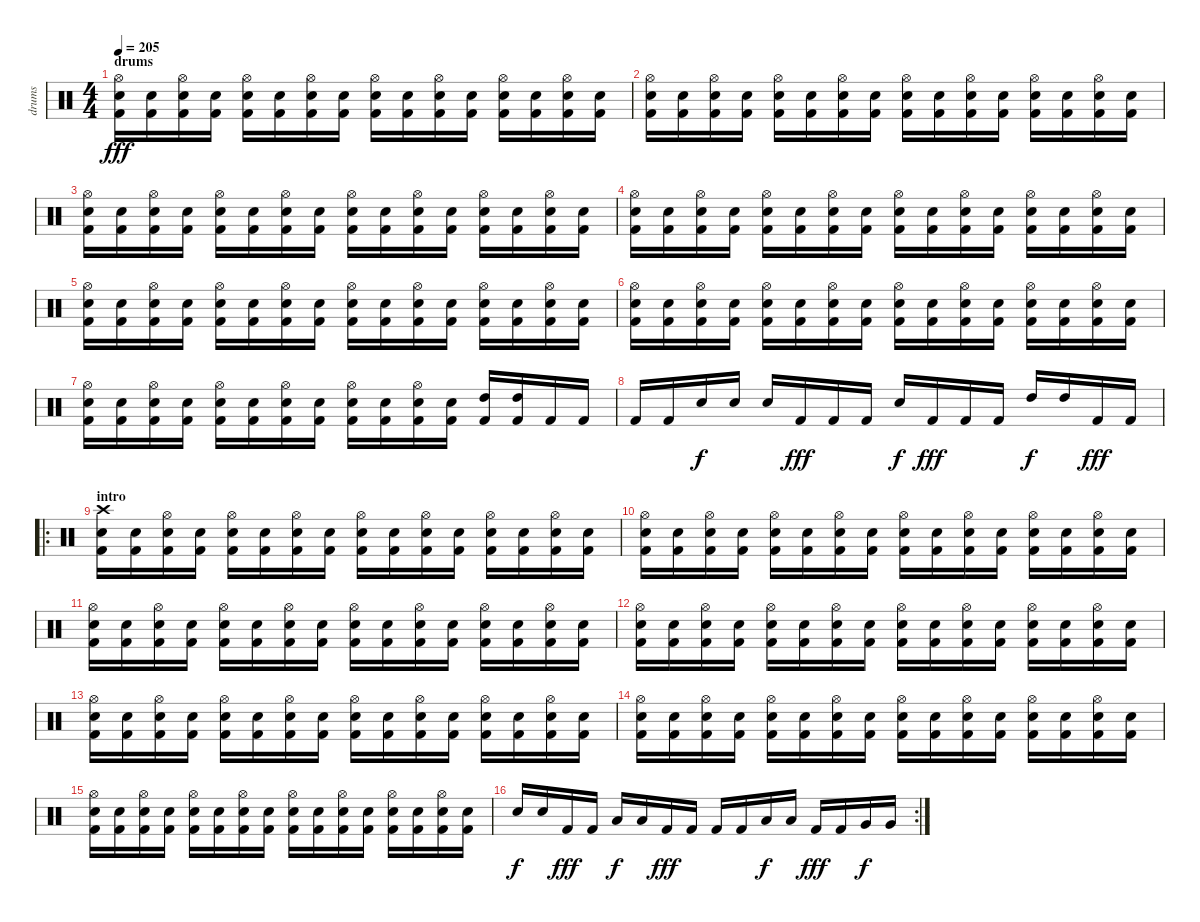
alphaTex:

\track ("drums" "drums") {instrument percussion}
\staff {score}
\articulation defaults
\ts (4 4)
\section ("" "drums")
\tempo 205
\clef neutral
\ks c
("Hi-Hat (open)" "Electric Snare (hit)" "Kick (hit) 2").16{dy fff} ("Electric Snare (hit)" "Kick (hit) 2").16 ("Hi-Hat (open)" "Electric Snare (hit)" "Kick (hit) 2").16 ("Electric Snare (hit)" "Kick (hit) 2").16 ("Hi-Hat (open)" "Electric Snare (hit)" "Kick (hit) 2").16 ("Electric Snare (hit)" "Kick (hit) 2").16 ("Hi-Hat (open)" "Electric Snare (hit)" "Kick (hit) 2").16 ("Electric Snare (hit)" "Kick (hit) 2").16 ("Hi-Hat (open)" "Electric Snare (hit)" "Kick (hit) 2").16 ("Electric Snare (hit)" "Kick (hit) 2").16 ("Hi-Hat (open)" "Electric Snare (hit)" "Kick (hit) 2").16 ("Electric Snare (hit)" "Kick (hit) 2").16 ("Hi-Hat (open)" "Electric Snare (hit)" "Kick (hit) 2").16 ("Electric Snare (hit)" "Kick (hit) 2").16 ("Hi-Hat (open)" "Electric Snare (hit)" "Kick (hit) 2").16 ("Electric Snare (hit)" "Kick (hit) 2").16 |
("Hi-Hat (open)" "Electric Snare (hit)" "Kick (hit) 2").16 ("Electric Snare (hit)" "Kick (hit) 2").16 ("Hi-Hat (open)" "Electric Snare (hit)" "Kick (hit) 2").16 ("Electric Snare (hit)" "Kick (hit) 2").16 ("Hi-Hat (open)" "Electric Snare (hit)" "Kick (hit) 2").16 ("Electric Snare (hit)" "Kick (hit) 2").16 ("Hi-Hat (open)" "Electric Snare (hit)" "Kick (hit) 2").16 ("Electric Snare (hit)" "Kick (hit) 2").16 ("Hi-Hat (open)" "Electric Snare (hit)" "Kick (hit) 2").16 ("Electric Snare (hit)" "Kick (hit) 2").16 ("Hi-Hat (open)" "Electric Snare (hit)" "Kick (hit) 2").16 ("Electric Snare (hit)" "Kick (hit) 2").16 ("Hi-Hat (open)" "Electric Snare (hit)" "Kick (hit) 2").16 ("Electric Snare (hit)" "Kick (hit) 2").16 ("Hi-Hat (open)" "Electric Snare (hit)" "Kick (hit) 2").16 ("Electric Snare (hit)" "Kick (hit) 2").16 |
("Hi-Hat (open)" "Electric Snare (hit)" "Kick (hit) 2").16 ("Electric Snare (hit)" "Kick (hit) 2").16 ("Hi-Hat (open)" "Electric Snare (hit)" "Kick (hit) 2").16 ("Electric Snare (hit)" "Kick (hit) 2").16 ("Hi-Hat (open)" "Electric Snare (hit)" "Kick (hit) 2").16 ("Electric Snare (hit)" "Kick (hit) 2").16 ("Hi-Hat (open)" "Electric Snare (hit)" "Kick (hit) 2").16 ("Electric Snare (hit)" "Kick (hit) 2").16 ("Hi-Hat (open)" "Electric Snare (hit)" "Kick (hit) 2").16 ("Electric Snare (hit)" "Kick (hit) 2").16 ("Hi-Hat (open)" "Electric Snare (hit)" "Kick (hit) 2").16 ("Electric Snare (hit)" "Kick (hit) 2").16 ("Hi-Hat (open)" "Electric Snare (hit)" "Kick (hit) 2").16 ("Electric Snare (hit)" "Kick (hit) 2").16 ("Hi-Hat (open)" "Electric Snare (hit)" "Kick (hit) 2").16 ("Electric Snare (hit)" "Kick (hit) 2").16 |
("Hi-Hat (open)" "Electric Snare (hit)" "Kick (hit) 2").16 ("Electric Snare (hit)" "Kick (hit) 2").16 ("Hi-Hat (open)" "Electric Snare (hit)" "Kick (hit) 2").16 ("Electric Snare (hit)" "Kick (hit) 2").16 ("Hi-Hat (open)" "Electric Snare (hit)" "Kick (hit) 2").16 ("Electric Snare (hit)" "Kick (hit) 2").16 ("Hi-Hat (open)" "Electric Snare (hit)" "Kick (hit) 2").16 ("Electric Snare (hit)" "Kick (hit) 2").16 ("Hi-Hat (open)" "Electric Snare (hit)" "Kick (hit) 2").16 ("Electric Snare (hit)" "Kick (hit) 2").16 ("Hi-Hat (open)" "Electric Snare (hit)" "Kick (hit) 2").16 ("Electric Snare (hit)" "Kick (hit) 2").16 ("Hi-Hat (open)" "Electric Snare (hit)" "Kick (hit) 2").16 ("Electric Snare (hit)" "Kick (hit) 2").16 ("Hi-Hat (open)" "Electric Snare (hit)" "Kick (hit) 2").16 ("Electric Snare (hit)" "Kick (hit) 2").16 |
("Hi-Hat (open)" "Electric Snare (hit)" "Kick (hit) 2").16 ("Electric Snare (hit)" "Kick (hit) 2").16 ("Hi-Hat (open)" "Electric Snare (hit)" "Kick (hit) 2").16 ("Electric Snare (hit)" "Kick (hit) 2").16 ("Hi-Hat (open)" "Electric Snare (hit)" "Kick (hit) 2").16 ("Electric Snare (hit)" "Kick (hit) 2").16 ("Hi-Hat (open)" "Electric Snare (hit)" "Kick (hit) 2").16 ("Electric Snare (hit)" "Kick (hit) 2").16 ("Hi-Hat (open)" "Electric Snare (hit)" "Kick (hit) 2").16 ("Electric Snare (hit)" "Kick (hit) 2").16 ("Hi-Hat (open)" "Electric Snare (hit)" "Kick (hit) 2").16 ("Electric Snare (hit)" "Kick (hit) 2").16 ("Hi-Hat (open)" "Electric Snare (hit)" "Kick (hit) 2").16 ("Electric Snare (hit)" "Kick (hit) 2").16 ("Hi-Hat (open)" "Electric Snare (hit)" "Kick (hit) 2").16 ("Electric Snare (hit)" "Kick (hit) 2").16 |
("Hi-Hat (open)" "Electric Snare (hit)" "Kick (hit) 2").16 ("Electric Snare (hit)" "Kick (hit) 2").16 ("Hi-Hat (open)" "Electric Snare (hit)" "Kick (hit) 2").16 ("Electric Snare (hit)" "Kick (hit) 2").16 ("Hi-Hat (open)" "Electric Snare (hit)" "Kick (hit) 2").16 ("Electric Snare (hit)" "Kick (hit) 2").16 ("Hi-Hat (open)" "Electric Snare (hit)" "Kick (hit) 2").16 ("Electric Snare (hit)" "Kick (hit) 2").16 ("Hi-Hat (open)" "Electric Snare (hit)" "Kick (hit) 2").16 ("Electric Snare (hit)" "Kick (hit) 2").16 ("Hi-Hat (open)" "Electric Snare (hit)" "Kick (hit) 2").16 ("Electric Snare (hit)" "Kick (hit) 2").16 ("Hi-Hat (open)" "Electric Snare (hit)" "Kick (hit) 2").16 ("Electric Snare (hit)" "Kick (hit) 2").16 ("Hi-Hat (open)" "Electric Snare (hit)" "Kick (hit) 2").16 ("Electric Snare (hit)" "Kick (hit) 2").16 |
("Hi-Hat (open)" "Electric Snare (hit)" "Kick (hit) 2").16 ("Electric Snare (hit)" "Kick (hit) 2").16 ("Hi-Hat (open)" "Electric Snare (hit)" "Kick (hit) 2").16 ("Electric Snare (hit)" "Kick (hit) 2").16 ("Hi-Hat (open)" "Electric Snare (hit)" "Kick (hit) 2").16 ("Electric Snare (hit)" "Kick (hit) 2").16 ("Hi-Hat (open)" "Electric Snare (hit)" "Kick (hit) 2").16 ("Electric Snare (hit)" "Kick (hit) 2").16 ("Hi-Hat (open)" "Electric Snare (hit)" "Kick (hit) 2").16 ("Electric Snare (hit)" "Kick (hit) 2").16 ("Hi-Hat (open)" "Electric Snare (hit)" "Kick (hit) 2").16 ("Electric Snare (hit)" "Kick (hit) 2").16 ("High Tom (hit)" "Kick (hit) 2").16 ("High Tom (hit)" "Kick (hit) 2").16 "Kick (hit) 2".16 "Kick (hit) 2".16 |
"Kick (hit) 2".16 "Kick (hit) 2".16 "Electric Snare (hit)".16{dy f} "Electric Snare (hit)".16 "Electric Snare (hit)".16 "Kick (hit) 2".16{dy fff} "Kick (hit) 2".16 "Kick (hit) 2".16 "Electric Snare (hit)".16{dy f} "Kick (hit) 2".16{dy fff} "Kick (hit) 2".16 "Kick (hit) 2".16 "High Tom (hit)".16{dy f} "High Tom (hit)".16 "Kick (hit) 2".16{dy fff} "Kick (hit) 2".16 |
\ro
\section ("" "intro")
("Crash high (hit)" "Electric Snare (hit)" "Kick (hit) 2").16 ("Electric Snare (hit)" "Kick (hit) 2").16 ("Hi-Hat (open)" "Electric Snare (hit)" "Kick (hit) 2").16 ("Electric Snare (hit)" "Kick (hit) 2").16 ("Hi-Hat (open)" "Electric Snare (hit)" "Kick (hit) 2").16 ("Electric Snare (hit)" "Kick (hit) 2").16 ("Hi-Hat (open)" "Electric Snare (hit)" "Kick (hit) 2").16 ("Electric Snare (hit)" "Kick (hit) 2").16 ("Hi-Hat (open)" "Electric Snare (hit)" "Kick (hit) 2").16 ("Electric Snare (hit)" "Kick (hit) 2").16 ("Hi-Hat (open)" "Electric Snare (hit)" "Kick (hit) 2").16 ("Electric Snare (hit)" "Kick (hit) 2").16 ("Hi-Hat (open)" "Electric Snare (hit)" "Kick (hit) 2").16 ("Electric Snare (hit)" "Kick (hit) 2").16 ("Hi-Hat (open)" "Electric Snare (hit)" "Kick (hit) 2").16 ("Electric Snare (hit)" "Kick (hit) 2").16 |
("Hi-Hat (open)" "Electric Snare (hit)" "Kick (hit) 2").16 ("Electric Snare (hit)" "Kick (hit) 2").16 ("Hi-Hat (open)" "Electric Snare (hit)" "Kick (hit) 2").16 ("Electric Snare (hit)" "Kick (hit) 2").16 ("Hi-Hat (open)" "Electric Snare (hit)" "Kick (hit) 2").16 ("Electric Snare (hit)" "Kick (hit) 2").16 ("Hi-Hat (open)" "Electric Snare (hit)" "Kick (hit) 2").16 ("Electric Snare (hit)" "Kick (hit) 2").16 ("Hi-Hat (open)" "Electric Snare (hit)" "Kick (hit) 2").16 ("Electric Snare (hit)" "Kick (hit) 2").16 ("Hi-Hat (open)" "Electric Snare (hit)" "Kick (hit) 2").16 ("Electric Snare (hit)" "Kick (hit) 2").16 ("Hi-Hat (open)" "Electric Snare (hit)" "Kick (hit) 2").16 ("Electric Snare (hit)" "Kick (hit) 2").16 ("Hi-Hat (open)" "Electric Snare (hit)" "Kick (hit) 2").16 ("Electric Snare (hit)" "Kick (hit) 2").16 |
("Hi-Hat (open)" "Electric Snare (hit)" "Kick (hit) 2").16 ("Electric Snare (hit)" "Kick (hit) 2").16 ("Hi-Hat (open)" "Electric Snare (hit)" "Kick (hit) 2").16 ("Electric Snare (hit)" "Kick (hit) 2").16 ("Hi-Hat (open)" "Electric Snare (hit)" "Kick (hit) 2").16 ("Electric Snare (hit)" "Kick (hit) 2").16 ("Hi-Hat (open)" "Electric Snare (hit)" "Kick (hit) 2").16 ("Electric Snare (hit)" "Kick (hit) 2").16 ("Hi-Hat (open)" "Electric Snare (hit)" "Kick (hit) 2").16 ("Electric Snare (hit)" "Kick (hit) 2").16 ("Hi-Hat (open)" "Electric Snare (hit)" "Kick (hit) 2").16 ("Electric Snare (hit)" "Kick (hit) 2").16 ("Hi-Hat (open)" "Electric Snare (hit)" "Kick (hit) 2").16 ("Electric Snare (hit)" "Kick (hit) 2").16 ("Hi-Hat (open)" "Electric Snare (hit)" "Kick (hit) 2").16 ("Electric Snare (hit)" "Kick (hit) 2").16 |
("Hi-Hat (open)" "Electric Snare (hit)" "Kick (hit) 2").16 ("Electric Snare (hit)" "Kick (hit) 2").16 ("Hi-Hat (open)" "Electric Snare (hit)" "Kick (hit) 2").16 ("Electric Snare (hit)" "Kick (hit) 2").16 ("Hi-Hat (open)" "Electric Snare (hit)" "Kick (hit) 2").16 ("Electric Snare (hit)" "Kick (hit) 2").16 ("Hi-Hat (open)" "Electric Snare (hit)" "Kick (hit) 2").16 ("Electric Snare (hit)" "Kick (hit) 2").16 ("Hi-Hat (open)" "Electric Snare (hit)" "Kick (hit) 2").16 ("Electric Snare (hit)" "Kick (hit) 2").16 ("Hi-Hat (open)" "Electric Snare (hit)" "Kick (hit) 2").16 ("Electric Snare (hit)" "Kick (hit) 2").16 ("Hi-Hat (open)" "Electric Snare (hit)" "Kick (hit) 2").16 ("Electric Snare (hit)" "Kick (hit) 2").16 ("Hi-Hat (open)" "Electric Snare (hit)" "Kick (hit) 2").16 ("Electric Snare (hit)" "Kick (hit) 2").16 |
("Hi-Hat (open)" "Electric Snare (hit)" "Kick (hit) 2").16 ("Electric Snare (hit)" "Kick (hit) 2").16 ("Hi-Hat (open)" "Electric Snare (hit)" "Kick (hit) 2").16 ("Electric Snare (hit)" "Kick (hit) 2").16 ("Hi-Hat (open)" "Electric Snare (hit)" "Kick (hit) 2").16 ("Electric Snare (hit)" "Kick (hit) 2").16 ("Hi-Hat (open)" "Electric Snare (hit)" "Kick (hit) 2").16 ("Electric Snare (hit)" "Kick (hit) 2").16 ("Hi-Hat (open)" "Electric Snare (hit)" "Kick (hit) 2").16 ("Electric Snare (hit)" "Kick (hit) 2").16 ("Hi-Hat (open)" "Electric Snare (hit)" "Kick (hit) 2").16 ("Electric Snare (hit)" "Kick (hit) 2").16 ("Hi-Hat (open)" "Electric Snare (hit)" "Kick (hit) 2").16 ("Electric Snare (hit)" "Kick (hit) 2").16 ("Hi-Hat (open)" "Electric Snare (hit)" "Kick (hit) 2").16 ("Electric Snare (hit)" "Kick (hit) 2").16 |
("Hi-Hat (open)" "Electric Snare (hit)" "Kick (hit) 2").16 ("Electric Snare (hit)" "Kick (hit) 2").16 ("Hi-Hat (open)" "Electric Snare (hit)" "Kick (hit) 2").16 ("Electric Snare (hit)" "Kick (hit) 2").16 ("Hi-Hat (open)" "Electric Snare (hit)" "Kick (hit) 2").16 ("Electric Snare (hit)" "Kick (hit) 2").16 ("Hi-Hat (open)" "Electric Snare (hit)" "Kick (hit) 2").16 ("Electric Snare (hit)" "Kick (hit) 2").16 ("Hi-Hat (open)" "Electric Snare (hit)" "Kick (hit) 2").16 ("Electric Snare (hit)" "Kick (hit) 2").16 ("Hi-Hat (open)" "Electric Snare (hit)" "Kick (hit) 2").16 ("Electric Snare (hit)" "Kick (hit) 2").16 ("Hi-Hat (open)" "Electric Snare (hit)" "Kick (hit) 2").16 ("Electric Snare (hit)" "Kick (hit) 2").16 ("Hi-Hat (open)" "Electric Snare (hit)" "Kick (hit) 2").16 ("Electric Snare (hit)" "Kick (hit) 2").16 |
("Hi-Hat (open)" "Electric Snare (hit)" "Kick (hit) 2").16 ("Electric Snare (hit)" "Kick (hit) 2").16 ("Hi-Hat (open)" "Electric Snare (hit)" "Kick (hit) 2").16 ("Electric Snare (hit)" "Kick (hit) 2").16 ("Hi-Hat (open)" "Electric Snare (hit)" "Kick (hit) 2").16 ("Electric Snare (hit)" "Kick (hit) 2").16 ("Hi-Hat (open)" "Electric Snare (hit)" "Kick (hit) 2").16 ("Electric Snare (hit)" "Kick (hit) 2").16 ("Hi-Hat (open)" "Electric Snare (hit)" "Kick (hit) 2").16 ("Electric Snare (hit)" "Kick (hit) 2").16 ("Hi-Hat (open)" "Electric Snare (hit)" "Kick (hit) 2").16 ("Electric Snare (hit)" "Kick (hit) 2").16 ("Hi-Hat (open)" "Electric Snare (hit)" "Kick (hit) 2").16 ("Electric Snare (hit)" "Kick (hit) 2").16 ("Hi-Hat (open)" "Electric Snare (hit)" "Kick (hit) 2").16 ("Electric Snare (hit)" "Kick (hit) 2").16 |
\rc 2 "Electric Snare (hit)".16{dy f} "Electric Snare (hit)".16 "Kick (hit) 2".16{dy fff} "Kick (hit) 2".16 "Low Tom (hit)".16{dy f} "Low Tom (hit)".16 "Kick (hit) 2".16{dy fff} "Kick (hit) 2".16 "Kick (hit) 2".16 "Kick (hit) 2".16 "Low Tom (hit)".16{dy f} "Low Tom (hit)".16 "Kick (hit) 2".16{dy fff} "Kick (hit) 2".16 "Very Low Tom (hit)".16{dy f} "Very Low Tom (hit)".16
